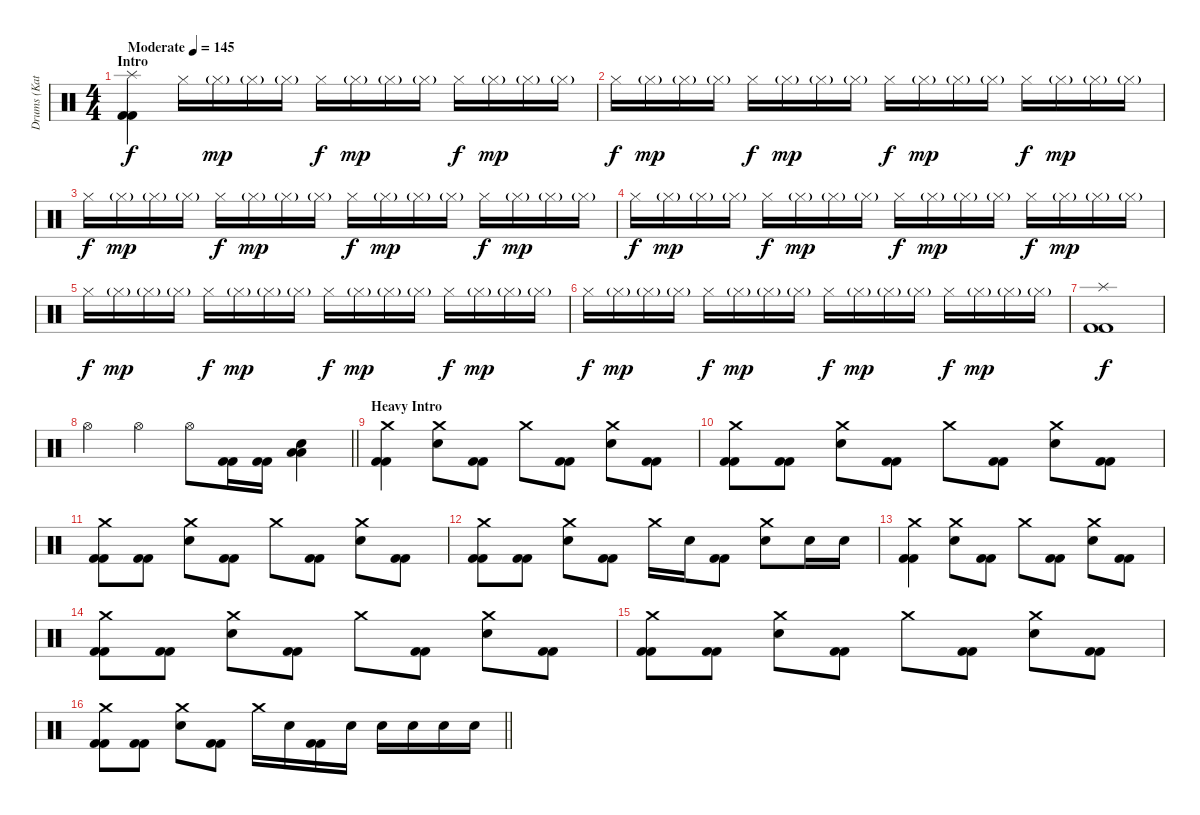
\track ("Drums (Katsuma)" "Drums (Kat") {instrument percussion}
\staff {score}
\articulation defaults
\ts (4 4)
\section ("" "Intro")
\tempo (145 "Moderate")
\clef neutral
\ks c
("Splash (hit)" "Kick (hit) 2" "Kick (hit) 2").4{dy f} "Hi-Hat (closed)".16 "Hi-Hat (closed)"{g}.16{dy mp} "Hi-Hat (closed)"{g}.16 "Hi-Hat (closed)"{g}.16 "Hi-Hat (closed)".16{dy f} "Hi-Hat (closed)"{g}.16{dy mp} "Hi-Hat (closed)"{g}.16 "Hi-Hat (closed)"{g}.16 "Hi-Hat (closed)".16{dy f} "Hi-Hat (closed)"{g}.16{dy mp} "Hi-Hat (closed)"{g}.16 "Hi-Hat (closed)"{g}.16 |
"Hi-Hat (closed)".16{dy f} "Hi-Hat (closed)"{g}.16{dy mp} "Hi-Hat (closed)"{g}.16 "Hi-Hat (closed)"{g}.16 "Hi-Hat (closed)".16{dy f} "Hi-Hat (closed)"{g}.16{dy mp} "Hi-Hat (closed)"{g}.16 "Hi-Hat (closed)"{g}.16 "Hi-Hat (closed)".16{dy f} "Hi-Hat (closed)"{g}.16{dy mp} "Hi-Hat (closed)"{g}.16 "Hi-Hat (closed)"{g}.16 "Hi-Hat (closed)".16{dy f} "Hi-Hat (closed)"{g}.16{dy mp} "Hi-Hat (closed)"{g}.16 "Hi-Hat (closed)"{g}.16 |
"Hi-Hat (closed)".16{dy f} "Hi-Hat (closed)"{g}.16{dy mp} "Hi-Hat (closed)"{g}.16 "Hi-Hat (closed)"{g}.16 "Hi-Hat (closed)".16{dy f} "Hi-Hat (closed)"{g}.16{dy mp} "Hi-Hat (closed)"{g}.16 "Hi-Hat (closed)"{g}.16 "Hi-Hat (closed)".16{dy f} "Hi-Hat (closed)"{g}.16{dy mp} "Hi-Hat (closed)"{g}.16 "Hi-Hat (closed)"{g}.16 "Hi-Hat (closed)".16{dy f} "Hi-Hat (closed)"{g}.16{dy mp} "Hi-Hat (closed)"{g}.16 "Hi-Hat (closed)"{g}.16 |
"Hi-Hat (closed)".16{dy f} "Hi-Hat (closed)"{g}.16{dy mp} "Hi-Hat (closed)"{g}.16 "Hi-Hat (closed)"{g}.16 "Hi-Hat (closed)".16{dy f} "Hi-Hat (closed)"{g}.16{dy mp} "Hi-Hat (closed)"{g}.16 "Hi-Hat (closed)"{g}.16 "Hi-Hat (closed)".16{dy f} "Hi-Hat (closed)"{g}.16{dy mp} "Hi-Hat (closed)"{g}.16 "Hi-Hat (closed)"{g}.16 "Hi-Hat (closed)".16{dy f} "Hi-Hat (closed)"{g}.16{dy mp} "Hi-Hat (closed)"{g}.16 "Hi-Hat (closed)"{g}.16 |
"Hi-Hat (closed)".16{dy f} "Hi-Hat (closed)"{g}.16{dy mp} "Hi-Hat (closed)"{g}.16 "Hi-Hat (closed)"{g}.16 "Hi-Hat (closed)".16{dy f} "Hi-Hat (closed)"{g}.16{dy mp} "Hi-Hat (closed)"{g}.16 "Hi-Hat (closed)"{g}.16 "Hi-Hat (closed)".16{dy f} "Hi-Hat (closed)"{g}.16{dy mp} "Hi-Hat (closed)"{g}.16 "Hi-Hat (closed)"{g}.16 "Hi-Hat (closed)".16{dy f} "Hi-Hat (closed)"{g}.16{dy mp} "Hi-Hat (closed)"{g}.16 "Hi-Hat (closed)"{g}.16 |
"Hi-Hat (closed)".16{dy f} "Hi-Hat (closed)"{g}.16{dy mp} "Hi-Hat (closed)"{g}.16 "Hi-Hat (closed)"{g}.16 "Hi-Hat (closed)".16{dy f} "Hi-Hat (closed)"{g}.16{dy mp} "Hi-Hat (closed)"{g}.16 "Hi-Hat (closed)"{g}.16 "Hi-Hat (closed)".16{dy f} "Hi-Hat (closed)"{g}.16{dy mp} "Hi-Hat (closed)"{g}.16 "Hi-Hat (closed)"{g}.16 "Hi-Hat (closed)".16{dy f} "Hi-Hat (closed)"{g}.16{dy mp} "Hi-Hat (closed)"{g}.16 "Hi-Hat (closed)"{g}.16 |
("Splash (hit)" "Kick (hit) 2" "Kick (hit) 2").1{dy f} |
\barLineRight lightlight "Hi-Hat (open)".4 "Hi-Hat (open)".4 "Hi-Hat (open)".8
("Kick (hit) 2" "Kick (hit) 2").16 ("Kick (hit) 2" "Kick (hit) 2").16 ("Low Tom (hit)" "Low Tom (hit)" "Electric Snare (hit)").4 |
\section ("" "Heavy Intro")
("Crash medium (hit)" "Kick (hit) 2" "Kick (hit) 2").4 ("Crash medium (hit)" "Electric Snare (hit)").8 ("Kick (hit) 2" "Kick (hit) 2").8 "Crash medium (hit)".8 ("Kick (hit) 2" "Kick (hit) 2").8 ("Crash medium (hit)" "Electric Snare (hit)").8 ("Kick (hit) 2" "Kick (hit) 2").8 |
("Crash medium (hit)" "Kick (hit) 2" "Kick (hit) 2").8 ("Kick (hit) 2" "Kick (hit) 2").8 ("Crash medium (hit)" "Electric Snare (hit)").8 ("Kick (hit) 2" "Kick (hit) 2").8 "Crash medium (hit)".8 ("Kick (hit) 2" "Kick (hit) 2").8 ("Crash medium (hit)" "Electric Snare (hit)").8 ("Kick (hit) 2" "Kick (hit) 2").8 |
("Crash medium (hit)" "Kick (hit) 2" "Kick (hit) 2").8 ("Kick (hit) 2" "Kick (hit) 2").8 ("Crash medium (hit)" "Electric Snare (hit)").8 ("Kick (hit) 2" "Kick (hit) 2").8 "Crash medium (hit)".8 ("Kick (hit) 2" "Kick (hit) 2").8 ("Crash medium (hit)" "Electric Snare (hit)").8 ("Kick (hit) 2" "Kick (hit) 2").8 |
("Crash medium (hit)" "Kick (hit) 2" "Kick (hit) 2").8 ("Kick (hit) 2" "Kick (hit) 2").8 ("Crash medium (hit)" "Electric Snare (hit)").8 ("Kick (hit) 2" "Kick (hit) 2").8 "Crash medium (hit)".16 "Electric Snare (hit)".16 ("Kick (hit) 2" "Kick (hit) 2").8 ("Crash medium (hit)" "Electric Snare (hit)").8 "Electric Snare (hit)".16 "Electric Snare (hit)".16 |
("Crash medium (hit)" "Kick (hit) 2" "Kick (hit) 2").4 ("Crash medium (hit)" "Electric Snare (hit)").8 ("Kick (hit) 2" "Kick (hit) 2").8 "Crash medium (hit)".8 ("Kick (hit) 2" "Kick (hit) 2").8 ("Crash medium (hit)" "Electric Snare (hit)").8 ("Kick (hit) 2" "Kick (hit) 2").8 |
("Crash medium (hit)" "Kick (hit) 2" "Kick (hit) 2").8 ("Kick (hit) 2" "Kick (hit) 2").8 ("Crash medium (hit)" "Electric Snare (hit)").8 ("Kick (hit) 2" "Kick (hit) 2").8 "Crash medium (hit)".8 ("Kick (hit) 2" "Kick (hit) 2").8 ("Crash medium (hit)" "Electric Snare (hit)").8 ("Kick (hit) 2" "Kick (hit) 2").8 |
("Crash medium (hit)" "Kick (hit) 2" "Kick (hit) 2").8 ("Kick (hit) 2" "Kick (hit) 2").8 ("Crash medium (hit)" "Electric Snare (hit)").8 ("Kick (hit) 2" "Kick (hit) 2").8 "Crash medium (hit)".8 ("Kick (hit) 2" "Kick (hit) 2").8 ("Crash medium (hit)" "Electric Snare (hit)").8 ("Kick (hit) 2" "Kick (hit) 2").8 |
\barLineRight lightlight
("Crash medium (hit)" "Kick (hit) 2" "Kick (hit) 2").8 ("Kick (hit) 2" "Kick (hit) 2").8 ("Crash medium (hit)" "Electric Snare (hit)").8 ("Kick (hit) 2" "Kick (hit) 2").8 "Crash medium (hit)".16 "Electric Snare (hit)".16 ("Kick (hit) 2" "Kick (hit) 2").16 "Electric Snare (hit)".16 "Electric Snare (hit)".16 "Electric Snare (hit)".16 "Electric Snare (hit)".16 "Electric Snare (hit)".16
